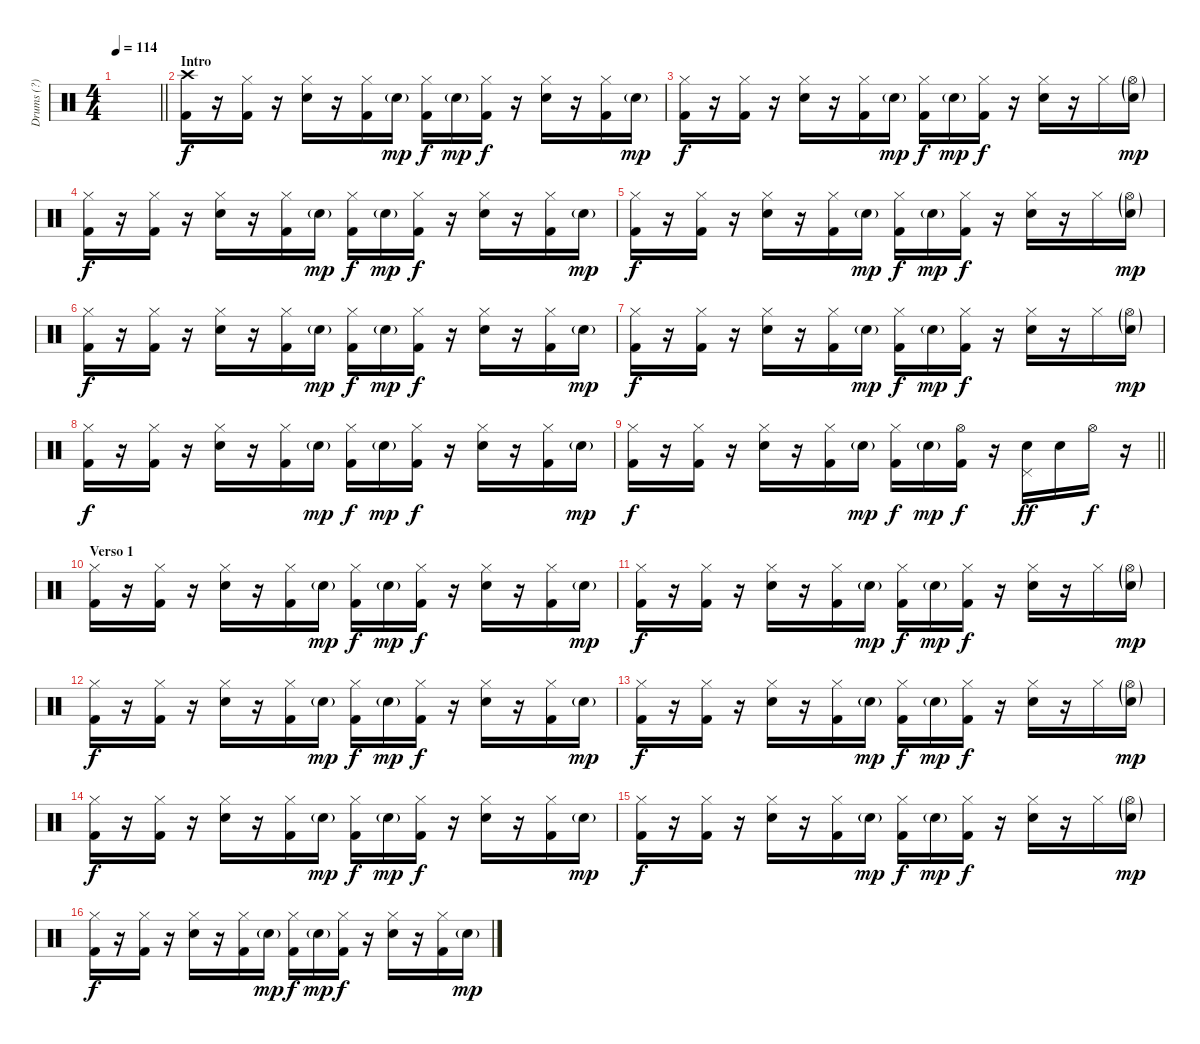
\track ("Drums (?)" "Drums (?)") {instrument percussion}
\staff {score}
\articulation defaults
\ts (4 4)
\tempo 114
\clef neutral
\barLineRight lightlight
\ks c
|
\section ("" "Intro")
("Crash high (hit)" "Kick (hit) 2").16 r.16 ("Hi-Hat (closed)" "Kick (hit) 2").16 r.16 ("Hi-Hat (closed)" "Snare (hit) 2").16 r.16 ("Hi-Hat (closed)" "Kick (hit) 2").16 "Snare (hit) 2"{g}.16{dy mp} ("Hi-Hat (closed)" "Kick (hit) 2").16{dy f} "Snare (hit) 2"{g}.16{dy mp} ("Hi-Hat (closed)" "Kick (hit) 2").16{dy f} r.16 ("Hi-Hat (closed)" "Snare (hit) 2").16 r.16 ("Hi-Hat (closed)" "Kick (hit) 2").16 "Snare (hit) 2"{g}.16{dy mp} |
("Hi-Hat (closed)" "Kick (hit) 2").16{dy f} r.16 ("Hi-Hat (closed)" "Kick (hit) 2").16 r.16 ("Hi-Hat (closed)" "Snare (hit) 2").16 r.16 ("Hi-Hat (closed)" "Kick (hit) 2").16 "Snare (hit) 2"{g}.16{dy mp} ("Hi-Hat (closed)" "Kick (hit) 2").16{dy f} "Snare (hit) 2"{g}.16{dy mp} ("Hi-Hat (closed)" "Kick (hit) 2").16{dy f} r.16 ("Hi-Hat (closed)" "Snare (hit) 2").16 r.16 "Hi-Hat (closed)".16 ("Hi-Hat (open)"{g} "Snare (hit) 2"{g}).16{dy mp} |
("Hi-Hat (closed)" "Kick (hit) 2").16{dy f} r.16 ("Hi-Hat (closed)" "Kick (hit) 2").16 r.16 ("Hi-Hat (closed)" "Snare (hit) 2").16 r.16 ("Hi-Hat (closed)" "Kick (hit) 2").16 "Snare (hit) 2"{g}.16{dy mp} ("Hi-Hat (closed)" "Kick (hit) 2").16{dy f} "Snare (hit) 2"{g}.16{dy mp} ("Hi-Hat (closed)" "Kick (hit) 2").16{dy f} r.16 ("Hi-Hat (closed)" "Snare (hit) 2").16 r.16 ("Hi-Hat (closed)" "Kick (hit) 2").16 "Snare (hit) 2"{g}.16{dy mp} |
("Hi-Hat (closed)" "Kick (hit) 2").16{dy f} r.16 ("Hi-Hat (closed)" "Kick (hit) 2").16 r.16 ("Hi-Hat (closed)" "Snare (hit) 2").16 r.16 ("Hi-Hat (closed)" "Kick (hit) 2").16 "Snare (hit) 2"{g}.16{dy mp} ("Hi-Hat (closed)" "Kick (hit) 2").16{dy f} "Snare (hit) 2"{g}.16{dy mp} ("Hi-Hat (closed)" "Kick (hit) 2").16{dy f} r.16 ("Hi-Hat (closed)" "Snare (hit) 2").16 r.16 "Hi-Hat (closed)".16 ("Hi-Hat (open)"{g} "Snare (hit) 2"{g}).16{dy mp} |
("Hi-Hat (closed)" "Kick (hit) 2").16{dy f} r.16 ("Hi-Hat (closed)" "Kick (hit) 2").16 r.16 ("Hi-Hat (closed)" "Snare (hit) 2").16 r.16 ("Hi-Hat (closed)" "Kick (hit) 2").16 "Snare (hit) 2"{g}.16{dy mp} ("Hi-Hat (closed)" "Kick (hit) 2").16{dy f} "Snare (hit) 2"{g}.16{dy mp} ("Hi-Hat (closed)" "Kick (hit) 2").16{dy f} r.16 ("Hi-Hat (closed)" "Snare (hit) 2").16 r.16 ("Hi-Hat (closed)" "Kick (hit) 2").16 "Snare (hit) 2"{g}.16{dy mp} |
("Hi-Hat (closed)" "Kick (hit) 2").16{dy f} r.16 ("Hi-Hat (closed)" "Kick (hit) 2").16 r.16 ("Hi-Hat (closed)" "Snare (hit) 2").16 r.16 ("Hi-Hat (closed)" "Kick (hit) 2").16 "Snare (hit) 2"{g}.16{dy mp} ("Hi-Hat (closed)" "Kick (hit) 2").16{dy f} "Snare (hit) 2"{g}.16{dy mp} ("Hi-Hat (closed)" "Kick (hit) 2").16{dy f} r.16 ("Hi-Hat (closed)" "Snare (hit) 2").16 r.16 "Hi-Hat (closed)".16 ("Hi-Hat (open)"{g} "Snare (hit) 2"{g}).16{dy mp} |
("Hi-Hat (closed)" "Kick (hit) 2").16{dy f} r.16 ("Hi-Hat (closed)" "Kick (hit) 2").16 r.16 ("Hi-Hat (closed)" "Snare (hit) 2").16 r.16 ("Hi-Hat (closed)" "Kick (hit) 2").16 "Snare (hit) 2"{g}.16{dy mp} ("Hi-Hat (closed)" "Kick (hit) 2").16{dy f} "Snare (hit) 2"{g}.16{dy mp} ("Hi-Hat (closed)" "Kick (hit) 2").16{dy f} r.16 ("Hi-Hat (closed)" "Snare (hit) 2").16 r.16 ("Hi-Hat (closed)" "Kick (hit) 2").16 "Snare (hit) 2"{g}.16{dy mp} |
\barLineRight lightlight
("Hi-Hat (closed)" "Kick (hit) 2").16{dy f} r.16 ("Hi-Hat (closed)" "Kick (hit) 2").16 r.16 ("Hi-Hat (closed)" "Snare (hit) 2").16 r.16 ("Hi-Hat (closed)" "Kick (hit) 2").16 "Snare (hit) 2"{g}.16{dy mp} ("Hi-Hat (closed)" "Kick (hit) 2").16{dy f} "Snare (hit) 2"{g}.16{dy mp} ("Hi-Hat (open)" "Kick (hit) 2").16{dy f} r.16 ("Pedal Hi-Hat (hit)" "Snare (hit) 2").16{dy ff} "Snare (hit) 2".16 "Hi-Hat (open)".16{dy f} r.16 |
\section ("" "Verso 1")
("Hi-Hat (closed)" "Kick (hit) 2").16 r.16 ("Hi-Hat (closed)" "Kick (hit) 2").16 r.16 ("Hi-Hat (closed)" "Snare (hit) 2").16 r.16 ("Hi-Hat (closed)" "Kick (hit) 2").16 "Snare (hit) 2"{g}.16{dy mp} ("Hi-Hat (closed)" "Kick (hit) 2").16{dy f} "Snare (hit) 2"{g}.16{dy mp} ("Hi-Hat (closed)" "Kick (hit) 2").16{dy f} r.16 ("Hi-Hat (closed)" "Snare (hit) 2").16 r.16 ("Hi-Hat (closed)" "Kick (hit) 2").16 "Snare (hit) 2"{g}.16{dy mp} |
("Hi-Hat (closed)" "Kick (hit) 2").16{dy f} r.16 ("Hi-Hat (closed)" "Kick (hit) 2").16 r.16 ("Hi-Hat (closed)" "Snare (hit) 2").16 r.16 ("Hi-Hat (closed)" "Kick (hit) 2").16 "Snare (hit) 2"{g}.16{dy mp} ("Hi-Hat (closed)" "Kick (hit) 2").16{dy f} "Snare (hit) 2"{g}.16{dy mp} ("Hi-Hat (closed)" "Kick (hit) 2").16{dy f} r.16 ("Hi-Hat (closed)" "Snare (hit) 2").16 r.16 "Hi-Hat (closed)".16 ("Hi-Hat (open)"{g} "Snare (hit) 2"{g}).16{dy mp} |
("Hi-Hat (closed)" "Kick (hit) 2").16{dy f} r.16 ("Hi-Hat (closed)" "Kick (hit) 2").16 r.16 ("Hi-Hat (closed)" "Snare (hit) 2").16 r.16 ("Hi-Hat (closed)" "Kick (hit) 2").16 "Snare (hit) 2"{g}.16{dy mp} ("Hi-Hat (closed)" "Kick (hit) 2").16{dy f} "Snare (hit) 2"{g}.16{dy mp} ("Hi-Hat (closed)" "Kick (hit) 2").16{dy f} r.16 ("Hi-Hat (closed)" "Snare (hit) 2").16 r.16 ("Hi-Hat (closed)" "Kick (hit) 2").16 "Snare (hit) 2"{g}.16{dy mp} |
("Hi-Hat (closed)" "Kick (hit) 2").16{dy f} r.16 ("Hi-Hat (closed)" "Kick (hit) 2").16 r.16 ("Hi-Hat (closed)" "Snare (hit) 2").16 r.16 ("Hi-Hat (closed)" "Kick (hit) 2").16 "Snare (hit) 2"{g}.16{dy mp} ("Hi-Hat (closed)" "Kick (hit) 2").16{dy f} "Snare (hit) 2"{g}.16{dy mp} ("Hi-Hat (closed)" "Kick (hit) 2").16{dy f} r.16 ("Hi-Hat (closed)" "Snare (hit) 2").16 r.16 "Hi-Hat (closed)".16 ("Hi-Hat (open)"{g} "Snare (hit) 2"{g}).16{dy mp} |
("Hi-Hat (closed)" "Kick (hit) 2").16{dy f} r.16 ("Hi-Hat (closed)" "Kick (hit) 2").16 r.16 ("Hi-Hat (closed)" "Snare (hit) 2").16 r.16 ("Hi-Hat (closed)" "Kick (hit) 2").16 "Snare (hit) 2"{g}.16{dy mp} ("Hi-Hat (closed)" "Kick (hit) 2").16{dy f} "Snare (hit) 2"{g}.16{dy mp} ("Hi-Hat (closed)" "Kick (hit) 2").16{dy f} r.16 ("Hi-Hat (closed)" "Snare (hit) 2").16 r.16 ("Hi-Hat (closed)" "Kick (hit) 2").16 "Snare (hit) 2"{g}.16{dy mp} |
("Hi-Hat (closed)" "Kick (hit) 2").16{dy f} r.16 ("Hi-Hat (closed)" "Kick (hit) 2").16 r.16 ("Hi-Hat (closed)" "Snare (hit) 2").16 r.16 ("Hi-Hat (closed)" "Kick (hit) 2").16 "Snare (hit) 2"{g}.16{dy mp} ("Hi-Hat (closed)" "Kick (hit) 2").16{dy f} "Snare (hit) 2"{g}.16{dy mp} ("Hi-Hat (closed)" "Kick (hit) 2").16{dy f} r.16 ("Hi-Hat (closed)" "Snare (hit) 2").16 r.16 "Hi-Hat (closed)".16 ("Hi-Hat (open)"{g} "Snare (hit) 2"{g}).16{dy mp} |
("Hi-Hat (closed)" "Kick (hit) 2").16{dy f} r.16 ("Hi-Hat (closed)" "Kick (hit) 2").16 r.16 ("Hi-Hat (closed)" "Snare (hit) 2").16 r.16 ("Hi-Hat (closed)" "Kick (hit) 2").16 "Snare (hit) 2"{g}.16{dy mp} ("Hi-Hat (closed)" "Kick (hit) 2").16{dy f} "Snare (hit) 2"{g}.16{dy mp} ("Hi-Hat (closed)" "Kick (hit) 2").16{dy f} r.16 ("Hi-Hat (closed)" "Snare (hit) 2").16 r.16 ("Hi-Hat (closed)" "Kick (hit) 2").16 "Snare (hit) 2"{g}.16{dy mp}
